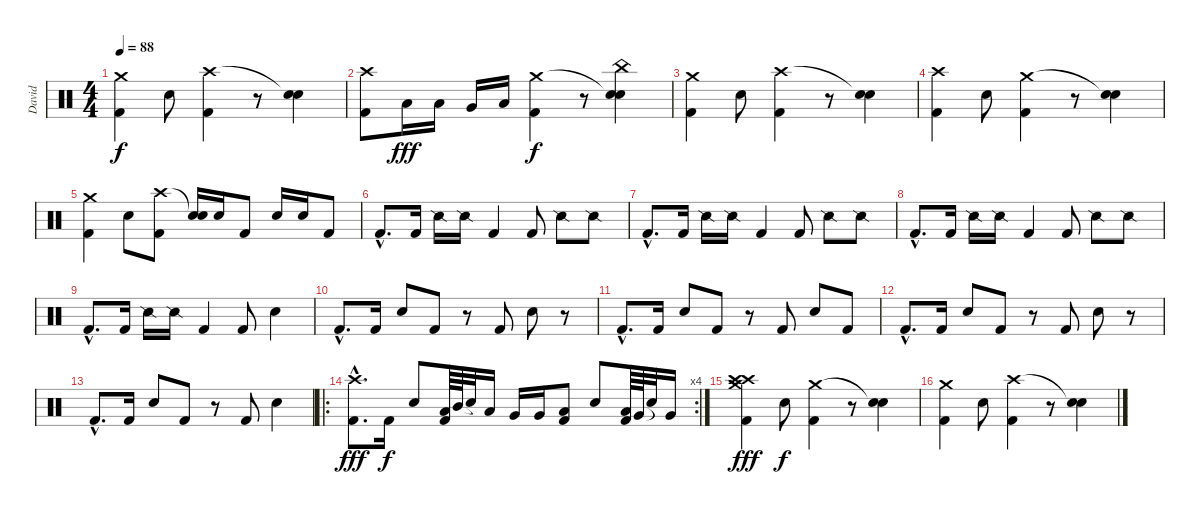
\track ("David" "David") {instrument percussion}
\staff {score}
\articulation defaults
\ts (4 4)
\tempo 88
\clef neutral
\ks c
("Kick (hit) 2" "Crash medium (hit)").4{dy f} "Snare (hit) 2".8 ("Crash high (hit)" "Kick (hit) 2").4 r.8 ("Snare (hit)"{t} "Snare (hit) 2").4 |
("Kick (hit) 2" "Crash high (hit)").8 "Low Tom (hit)".16{dy fff} "Low Tom (hit)".16 "Very Low Tom (hit)".16 "Low Floor Tom (hit)".16 ("Crash medium (hit)" "Kick (hit) 2").4{dy f} r.8 ("Snare (hit)"{t} "China (hit)" "Snare (hit) 2").4 |
("Kick (hit) 2" "Crash medium (hit)").4 "Snare (hit) 2".8 ("Crash high (hit)" "Kick (hit) 2").4 r.8 ("Snare (hit)"{t} "Snare (hit) 2").4 |
("Kick (hit) 2" "Crash high (hit)").4 "Snare (hit) 2".8 ("Crash medium (hit)" "Kick (hit) 2").4 r.8 ("Snare (hit)"{t} "Snare (hit) 2").4 |
("Kick (hit) 2" "Crash medium (hit)").4 "Snare (hit) 2".8 ("Crash high (hit)" "Kick (hit) 2").8 ("Snare (hit)"{t} "Snare (hit) 2").16 "Snare (hit) 2".16 "Kick (hit) 2".8 "Snare (hit) 2".16 "Snare (hit) 2".16 "Kick (hit) 2".8 |
"Kick (hit) 2"{hac}.8{d volume 14} "Kick (hit) 2".16 "Snare (side stick) 2".16 "Snare (side stick) 2".16 "Kick (hit) 2".4 "Kick (hit) 2".8 "Snare (side stick) 2".8 "Snare (side stick) 2".8 |
"Kick (hit) 2"{hac}.8{d} "Kick (hit) 2".16 "Snare (side stick) 2".16 "Snare (side stick) 2".16 "Kick (hit) 2".4 "Kick (hit) 2".8 "Snare (side stick) 2".8 "Snare (side stick) 2".8 |
"Kick (hit) 2"{hac}.8{d} "Kick (hit) 2".16 "Snare (side stick) 2".16 "Snare (side stick) 2".16 "Kick (hit) 2".4 "Kick (hit) 2".8 "Snare (side stick) 2".8 "Snare (side stick) 2".8 |
"Kick (hit) 2"{hac}.8{d} "Kick (hit) 2".16 "Snare (side stick) 2".16 "Snare (side stick) 2".16 "Kick (hit) 2".4 "Kick (hit) 2".8 "Snare (hit) 2".4 |
"Kick (hit) 2"{hac}.8{d} "Kick (hit) 2".16 "Snare (hit) 2".8 "Kick (hit) 2".8 r.8 "Kick (hit) 2".8 "Snare (hit) 2".8 r.8 |
"Kick (hit) 2"{hac}.8{d} "Kick (hit) 2".16 "Snare (hit) 2".8 "Kick (hit) 2".8 r.8 "Kick (hit) 2".8 "Snare (hit) 2".8 "Kick (hit) 2".8 |
"Kick (hit) 2"{hac}.8{d} "Kick (hit) 2".16 "Snare (hit) 2".8 "Kick (hit) 2".8 r.8 "Kick (hit) 2".8 "Snare (hit) 2".8 r.8 |
"Kick (hit) 2"{hac}.8{d} "Kick (hit) 2".16 "Snare (hit) 2".8 "Kick (hit) 2".8 r.8 "Kick (hit) 2".8 "Snare (hit) 2".4 |
\ro
\rc 4
("Crash high (hit)"{hac} "Kick (hit) 2"{hac}).8{d dy fff} "Kick (hit) 2".16{dy f} "Snare (hit) 2".8 ("Kick (hit) 2" "Low Tom (hit)").64 "Mid Tom (hit)".64 "Snare (hit)"{t}.32 "Low Tom (hit)".16 "Very Low Tom (hit)".16 "Very Low Tom (hit)".16 ("Kick (hit) 2" "Low Floor Tom (hit)").8 "Snare (hit) 2".8 ("Kick (hit) 2" "Low Floor Tom (hit)").64 "Very Low Tom (hit)".64 "Snare (hit)"{t}.32 "Very Low Tom (hit)".16 |
("Kick (hit) 2" "Crash high (hit)" "Crash medium (hit)" "Crash high (hit)").4{dy fff} "Snare (hit) 2".8{dy f} ("Crash medium (hit)" "Kick (hit) 2").4 r.8 ("Snare (hit)"{t} "Snare (hit) 2").4 |
("Kick (hit) 2" "Crash medium (hit)").4 "Snare (hit) 2".8 ("Crash high (hit)" "Kick (hit) 2").4 r.8 ("Snare (hit)"{t} "Snare (hit) 2").4
